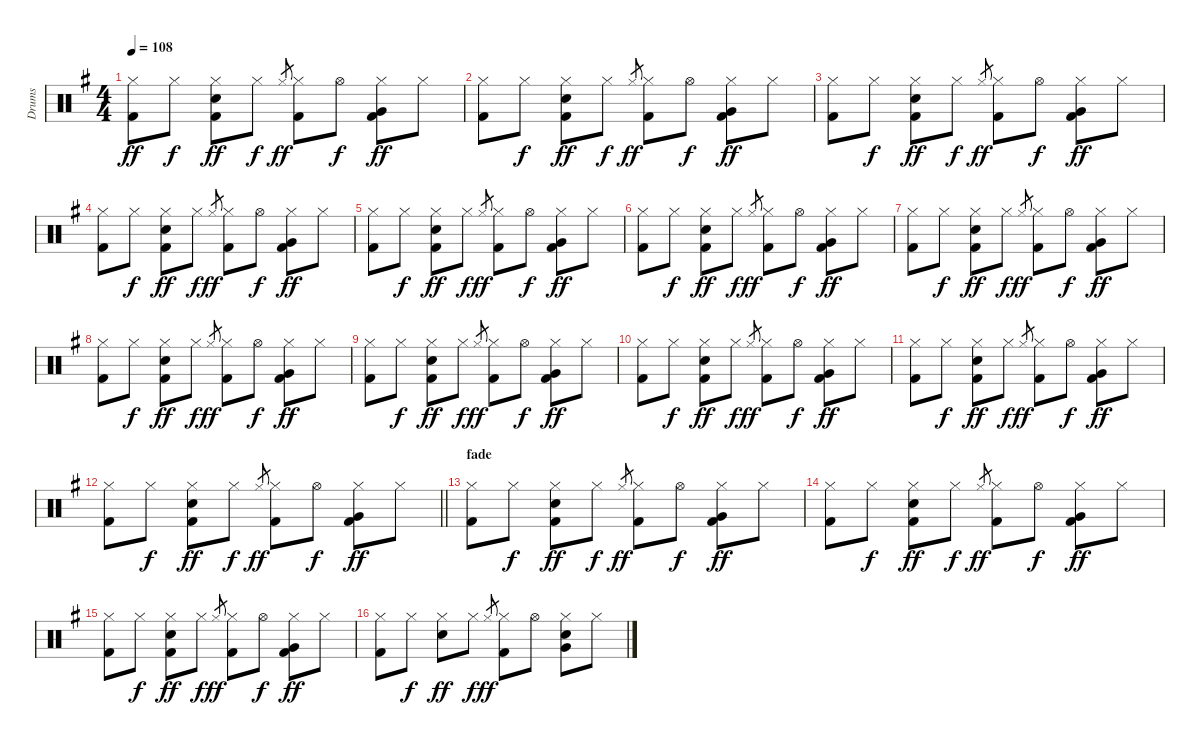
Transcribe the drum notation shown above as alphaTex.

\track ("Drums" "Drums") {instrument percussion}
\staff {score}
\articulation defaults
\ts (4 4)
\tempo 108
\clef neutral
\ks g
("Hi-Hat (closed)" "Kick (hit) 2").8{dy ff} "Hi-Hat (closed)".8{dy f} ("Hi-Hat (closed)" "Snare (hit) 2" "Kick (hit) 2").8{dy ff} "Hi-Hat (closed)".8{dy f} "Hi-Hat (closed)".8{gr dy ff} ("Hi-Hat (closed)" "Kick (hit) 2").8 "Hi-Hat (open)".8{dy f} ("Hi-Hat (closed)" "Very Low Tom (hit)" "Kick (hit) 2").8{dy ff} "Hi-Hat (closed)".8 |
("Hi-Hat (closed)" "Kick (hit) 2").8 "Hi-Hat (closed)".8{dy f} ("Hi-Hat (closed)" "Snare (hit) 2" "Kick (hit) 2").8{dy ff} "Hi-Hat (closed)".8{dy f} "Hi-Hat (closed)".8{gr dy ff} ("Hi-Hat (closed)" "Kick (hit) 2").8 "Hi-Hat (open)".8{dy f} ("Hi-Hat (closed)" "Very Low Tom (hit)" "Kick (hit) 2").8{dy ff} "Hi-Hat (closed)".8 |
("Hi-Hat (closed)" "Kick (hit) 2").8 "Hi-Hat (closed)".8{dy f} ("Hi-Hat (closed)" "Snare (hit) 2" "Kick (hit) 2").8{dy ff} "Hi-Hat (closed)".8{dy f} "Hi-Hat (closed)".8{gr dy ff} ("Hi-Hat (closed)" "Kick (hit) 2").8 "Hi-Hat (open)".8{dy f} ("Hi-Hat (closed)" "Very Low Tom (hit)" "Kick (hit) 2").8{dy ff} "Hi-Hat (closed)".8 |
("Hi-Hat (closed)" "Kick (hit) 2").8 "Hi-Hat (closed)".8{dy f} ("Hi-Hat (closed)" "Snare (hit) 2" "Kick (hit) 2").8{dy ff} "Hi-Hat (closed)".8{dy f} "Hi-Hat (closed)".8{gr dy ff} ("Hi-Hat (closed)" "Kick (hit) 2").8 "Hi-Hat (open)".8{dy f} ("Hi-Hat (closed)" "Very Low Tom (hit)" "Kick (hit) 2").8{dy ff} "Hi-Hat (closed)".8 |
("Hi-Hat (closed)" "Kick (hit) 2").8 "Hi-Hat (closed)".8{dy f} ("Hi-Hat (closed)" "Snare (hit) 2" "Kick (hit) 2").8{dy ff} "Hi-Hat (closed)".8{dy f} "Hi-Hat (closed)".8{gr dy ff} ("Hi-Hat (closed)" "Kick (hit) 2").8 "Hi-Hat (open)".8{dy f} ("Hi-Hat (closed)" "Very Low Tom (hit)" "Kick (hit) 2").8{dy ff} "Hi-Hat (closed)".8 |
("Hi-Hat (closed)" "Kick (hit) 2").8 "Hi-Hat (closed)".8{dy f} ("Hi-Hat (closed)" "Snare (hit) 2" "Kick (hit) 2").8{dy ff} "Hi-Hat (closed)".8{dy f} "Hi-Hat (closed)".8{gr dy ff} ("Hi-Hat (closed)" "Kick (hit) 2").8 "Hi-Hat (open)".8{dy f} ("Hi-Hat (closed)" "Very Low Tom (hit)" "Kick (hit) 2").8{dy ff} "Hi-Hat (closed)".8 |
("Hi-Hat (closed)" "Kick (hit) 2").8 "Hi-Hat (closed)".8{dy f} ("Hi-Hat (closed)" "Snare (hit) 2" "Kick (hit) 2").8{dy ff} "Hi-Hat (closed)".8{dy f} "Hi-Hat (closed)".8{gr dy ff} ("Hi-Hat (closed)" "Kick (hit) 2").8 "Hi-Hat (open)".8{dy f} ("Hi-Hat (closed)" "Very Low Tom (hit)" "Kick (hit) 2").8{dy ff} "Hi-Hat (closed)".8 |
("Hi-Hat (closed)" "Kick (hit) 2").8 "Hi-Hat (closed)".8{dy f} ("Hi-Hat (closed)" "Snare (hit) 2" "Kick (hit) 2").8{dy ff} "Hi-Hat (closed)".8{dy f} "Hi-Hat (closed)".8{gr dy ff} ("Hi-Hat (closed)" "Kick (hit) 2").8 "Hi-Hat (open)".8{dy f} ("Hi-Hat (closed)" "Very Low Tom (hit)" "Kick (hit) 2").8{dy ff} "Hi-Hat (closed)".8 |
("Hi-Hat (closed)" "Kick (hit) 2").8 "Hi-Hat (closed)".8{dy f} ("Hi-Hat (closed)" "Snare (hit) 2" "Kick (hit) 2").8{dy ff} "Hi-Hat (closed)".8{dy f} "Hi-Hat (closed)".8{gr dy ff} ("Hi-Hat (closed)" "Kick (hit) 2").8 "Hi-Hat (open)".8{dy f} ("Hi-Hat (closed)" "Very Low Tom (hit)" "Kick (hit) 2").8{dy ff} "Hi-Hat (closed)".8 |
("Hi-Hat (closed)" "Kick (hit) 2").8 "Hi-Hat (closed)".8{dy f} ("Hi-Hat (closed)" "Snare (hit) 2" "Kick (hit) 2").8{dy ff} "Hi-Hat (closed)".8{dy f} "Hi-Hat (closed)".8{gr dy ff} ("Hi-Hat (closed)" "Kick (hit) 2").8 "Hi-Hat (open)".8{dy f} ("Hi-Hat (closed)" "Very Low Tom (hit)" "Kick (hit) 2").8{dy ff} "Hi-Hat (closed)".8 |
("Hi-Hat (closed)" "Kick (hit) 2").8 "Hi-Hat (closed)".8{dy f} ("Hi-Hat (closed)" "Snare (hit) 2" "Kick (hit) 2").8{dy ff} "Hi-Hat (closed)".8{dy f} "Hi-Hat (closed)".8{gr dy ff} ("Hi-Hat (closed)" "Kick (hit) 2").8 "Hi-Hat (open)".8{dy f} ("Hi-Hat (closed)" "Very Low Tom (hit)" "Kick (hit) 2").8{dy ff} "Hi-Hat (closed)".8 |
\barLineRight lightlight
("Hi-Hat (closed)" "Kick (hit) 2").8 "Hi-Hat (closed)".8{dy f} ("Hi-Hat (closed)" "Snare (hit) 2" "Kick (hit) 2").8{dy ff} "Hi-Hat (closed)".8{dy f} "Hi-Hat (closed)".8{gr dy ff} ("Hi-Hat (closed)" "Kick (hit) 2").8 "Hi-Hat (open)".8{dy f} ("Hi-Hat (closed)" "Very Low Tom (hit)" "Kick (hit) 2").8{dy ff} "Hi-Hat (closed)".8 |
\section ("" "fade")
("Hi-Hat (closed)" "Kick (hit) 2").8{volume 0} "Hi-Hat (closed)".8{dy f} ("Hi-Hat (closed)" "Snare (hit) 2" "Kick (hit) 2").8{dy ff} "Hi-Hat (closed)".8{dy f} "Hi-Hat (closed)".8{gr dy ff} ("Hi-Hat (closed)" "Kick (hit) 2").8 "Hi-Hat (open)".8{dy f} ("Hi-Hat (closed)" "Very Low Tom (hit)" "Kick (hit) 2").8{dy ff} "Hi-Hat (closed)".8 |
("Hi-Hat (closed)" "Kick (hit) 2").8 "Hi-Hat (closed)".8{dy f} ("Hi-Hat (closed)" "Snare (hit) 2" "Kick (hit) 2").8{dy ff} "Hi-Hat (closed)".8{dy f} "Hi-Hat (closed)".8{gr dy ff} ("Hi-Hat (closed)" "Kick (hit) 2").8 "Hi-Hat (open)".8{dy f} ("Hi-Hat (closed)" "Very Low Tom (hit)" "Kick (hit) 2").8{dy ff} "Hi-Hat (closed)".8 |
("Hi-Hat (closed)" "Kick (hit) 2").8 "Hi-Hat (closed)".8{dy f} ("Hi-Hat (closed)" "Snare (hit) 2" "Kick (hit) 2").8{dy ff} "Hi-Hat (closed)".8{dy f} "Hi-Hat (closed)".8{gr dy ff} ("Hi-Hat (closed)" "Kick (hit) 2").8 "Hi-Hat (open)".8{dy f} ("Hi-Hat (closed)" "Very Low Tom (hit)" "Kick (hit) 2").8{dy ff} "Hi-Hat (closed)".8 |
("Kick (hit) 2" "Hi-Hat (closed)").8 "Hi-Hat (closed)".8{dy f} ("Snare (hit) 2" "Hi-Hat (closed)").8{dy ff} "Hi-Hat (closed)".8{dy f} "Hi-Hat (closed)".8{gr dy ff} ("Kick (hit) 2" "Hi-Hat (closed)").8 "Hi-Hat (open)".8 ("Snare (hit) 2" "Very Low Tom (hit)" "Hi-Hat (closed)").8 "Hi-Hat (closed)".8
